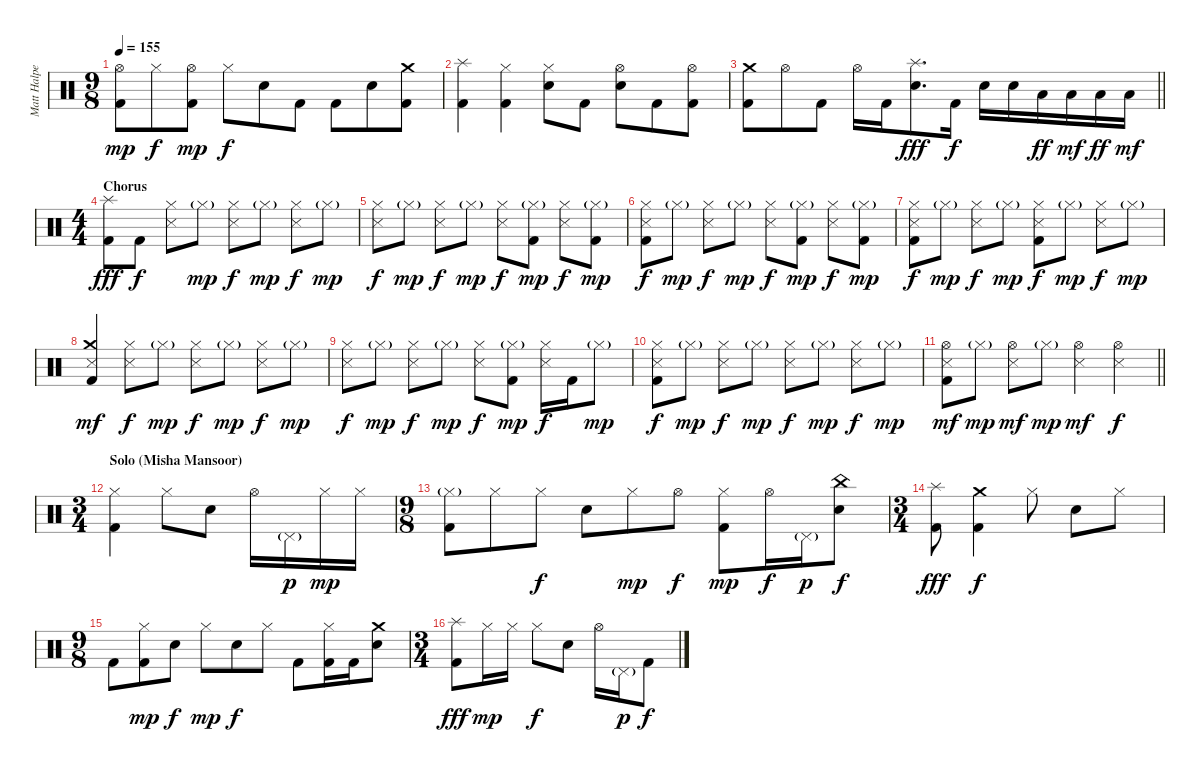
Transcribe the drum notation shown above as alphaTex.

\track ("Matt Halpern - Drums" "Matt Halpe") {instrument percussion}
\staff {score}
\articulation defaults
\ts (9 8)
\tempo 155
\clef neutral
\ks c
("Hi-Hat (open)" "Kick (hit) 2").8{dy mp} "Hi-Hat (closed)".8{dy f} ("Hi-Hat (open)" "Kick (hit) 2").8{dy mp} "Hi-Hat (closed)".8{dy f} "Electric Snare (hit)".8 "Kick (hit) 2".8 "Kick (hit) 2".8 "Electric Snare (hit)".8 ("Crash medium (hit)" "Kick (hit) 2").8 |
("Splash (hit)" "Kick (hit) 2").4 ("Hi-Hat (closed)" "Kick (hit) 2").4 ("Hi-Hat (closed)" "Electric Snare (hit)").8 "Kick (hit) 2".8 ("Hi-Hat (open)" "Electric Snare (hit)").8 "Kick (hit) 2".8 ("Hi-Hat (open)" "Kick (hit) 2").8 |
\barLineRight lightlight
("Crash medium (hit)" "Kick (hit) 2").8 "Hi-Hat (open)".8 "Kick (hit) 2".8 "Hi-Hat (open)".16 "Kick (hit) 2".16 ("Splash (hit)" "Electric Snare (hit)").8{d dy fff} "Kick (hit) 2".16{dy f} "Electric Snare (hit)".16 "Electric Snare (hit)".16 "Low Tom (hit)".16{dy ff} "Low Tom (hit)".16{dy mf} "Low Floor Tom (hit)".16{dy ff} "Low Floor Tom (hit)".16{dy mf} |
\ts (4 4)
\section ("" "Chorus")
("Splash (hit)" "Kick (hit) 2").8{dy fff} "Kick (hit) 2".8{dy f} ("Hi-Hat (closed)" "Snare (side stick) 3").8 "Hi-Hat (closed)"{g}.8{dy mp} ("Hi-Hat (closed)" "Snare (side stick) 3").8{dy f} "Hi-Hat (closed)"{g}.8{dy mp} ("Hi-Hat (closed)" "Snare (side stick) 3").8{dy f} "Hi-Hat (closed)"{g}.8{dy mp} |
("Hi-Hat (closed)" "Snare (side stick) 3").8{dy f} "Hi-Hat (closed)"{g}.8{dy mp} ("Hi-Hat (closed)" "Snare (side stick) 3").8{dy f} "Hi-Hat (closed)"{g}.8{dy mp} ("Hi-Hat (closed)" "Snare (side stick) 3").8{dy f} ("Hi-Hat (closed)"{g} "Kick (hit) 2").8{dy mp} ("Hi-Hat (closed)" "Snare (side stick) 3").8{dy f} ("Hi-Hat (closed)"{g} "Kick (hit) 2").8{dy mp} |
("Hi-Hat (closed)" "Snare (side stick) 3" "Kick (hit) 2").8{dy f} "Hi-Hat (closed)"{g}.8{dy mp} ("Hi-Hat (closed)" "Snare (side stick) 3").8{dy f} "Hi-Hat (closed)"{g}.8{dy mp} ("Hi-Hat (closed)" "Snare (side stick) 3").8{dy f} ("Hi-Hat (closed)"{g} "Kick (hit) 2").8{dy mp} ("Hi-Hat (closed)" "Snare (side stick) 3").8{dy f} ("Hi-Hat (closed)"{g} "Kick (hit) 2").8{dy mp} |
("Hi-Hat (closed)" "Snare (side stick) 3" "Kick (hit) 2").8{dy f} "Hi-Hat (closed)"{g}.8{dy mp} ("Hi-Hat (closed)" "Snare (side stick) 3").8{dy f} "Hi-Hat (closed)"{g}.8{dy mp} ("Hi-Hat (closed)" "Snare (side stick) 3" "Kick (hit) 2").8{dy f} "Hi-Hat (closed)"{g}.8{dy mp} ("Hi-Hat (closed)" "Snare (side stick) 3").8{dy f} "Hi-Hat (closed)"{g}.8{dy mp} |
("Crash medium (hit)" "Snare (side stick) 3" "Kick (hit) 2").4{dy mf} ("Hi-Hat (closed)" "Snare (side stick) 3").8{dy f} "Hi-Hat (closed)"{g}.8{dy mp} ("Hi-Hat (closed)" "Snare (side stick) 3").8{dy f} "Hi-Hat (closed)"{g}.8{dy mp} ("Hi-Hat (closed)" "Snare (side stick) 3").8{dy f} "Hi-Hat (closed)"{g}.8{dy mp} |
("Hi-Hat (closed)" "Snare (side stick) 3").8{dy f} "Hi-Hat (closed)"{g}.8{dy mp} ("Hi-Hat (closed)" "Snare (side stick) 3").8{dy f} "Hi-Hat (closed)"{g}.8{dy mp} ("Hi-Hat (closed)" "Snare (side stick) 3").8{dy f} ("Hi-Hat (closed)"{g} "Kick (hit) 2").8{dy mp} ("Hi-Hat (closed)" "Snare (side stick) 3").16{dy f} "Kick (hit) 2".16 "Hi-Hat (closed)"{g}.8{dy mp} |
("Hi-Hat (closed)" "Snare (side stick) 3" "Kick (hit) 2").8{dy f} "Hi-Hat (closed)"{g}.8{dy mp} ("Hi-Hat (closed)" "Snare (side stick) 3").8{dy f} "Hi-Hat (closed)"{g}.8{dy mp} ("Hi-Hat (closed)" "Snare (side stick) 3").8{dy f} "Hi-Hat (closed)"{g}.8{dy mp} ("Hi-Hat (closed)" "Snare (side stick) 3").8{dy f} "Hi-Hat (closed)"{g}.8{dy mp} |
\barLineRight lightlight
("Hi-Hat (open)" "Snare (side stick) 3" "Kick (hit) 2").8{dy mf} "Hi-Hat (closed)"{g}.8{dy mp} ("Hi-Hat (open)" "Snare (side stick) 3").8{dy mf} "Hi-Hat (closed)"{g}.8{dy mp} ("Hi-Hat (open)" "Snare (side stick) 3").4{dy mf} ("Hi-Hat (open)" "Snare (side stick) 3").4{dy f} |
\ts (3 4)
\section ("" "Solo (Misha Mansoor)")
("Hi-Hat (closed)" "Kick (hit) 2").4 "Hi-Hat (closed)".8 "Electric Snare (hit)".8 "Hi-Hat (open)".16 "Pedal Hi-Hat (hit)"{g}.16{dy p} "Hi-Hat (closed)".16{dy mp} "Hi-Hat (closed)".16 |
\ts (9 8)
("Hi-Hat (closed)"{g} "Kick (hit) 2").8 "Hi-Hat (closed)".8 "Hi-Hat (closed)".8{dy f} "Electric Snare (hit)".8 "Hi-Hat (closed)".8{dy mp} "Hi-Hat (open)".8{dy f} ("Hi-Hat (closed)" "Kick (hit) 2").8{dy mp} "Hi-Hat (open)".16{dy f} "Pedal Hi-Hat (hit)"{g}.16{dy p} ("China (hit)" "Electric Snare (hit)").8{dy f} |
\ts (3 4)
("Splash (hit)" "Kick (hit) 2").8{dy fff} ("Crash medium (hit)" "Kick (hit) 2").4{dy f} "Hi-Hat (closed)".8 "Electric Snare (hit)".8 "Hi-Hat (closed)".8 |
\ts (9 8)
"Kick (hit) 2".8 ("Hi-Hat (closed)" "Kick (hit) 2").8{dy mp} "Electric Snare (hit)".8{dy f} "Hi-Hat (closed)".8{dy mp} "Electric Snare (hit)".8{dy f} "Hi-Hat (closed)".8 "Kick (hit) 2".8 ("Hi-Hat (closed)" "Kick (hit) 2").16 "Kick (hit) 2".16 ("Crash medium (hit)" "Electric Snare (hit)").8 |
\ts (3 4)
("Splash (hit)" "Kick (hit) 2").8{dy fff} "Hi-Hat (closed)".16{dy mp} "Hi-Hat (closed)".16 "Hi-Hat (closed)".8{dy f} "Electric Snare (hit)".8 "Hi-Hat (open)".16 "Pedal Hi-Hat (hit)"{g}.16{dy p} "Kick (hit) 2".8{dy f}
